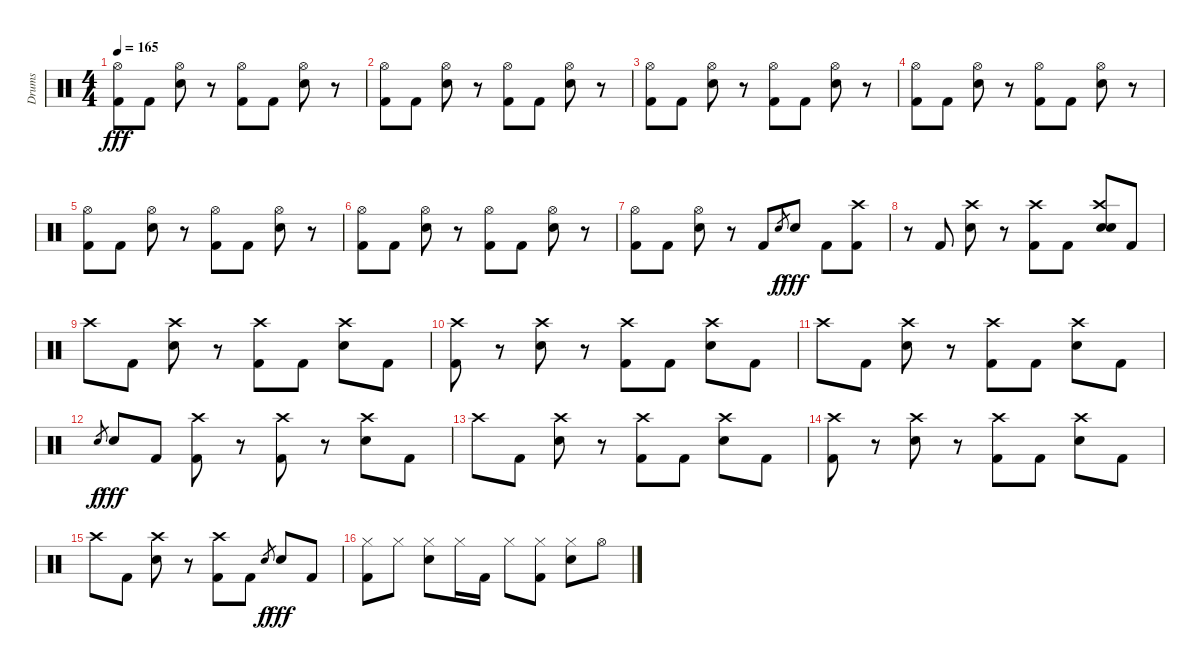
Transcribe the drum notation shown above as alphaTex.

\track ("Drums" "Drums") {instrument percussion}
\staff {score}
\articulation defaults
\ts (4 4)
\tempo 165
\clef neutral
\ks c
("Hi-Hat (open)" "Kick (hit) 2").8{dy fff} "Kick (hit) 2".8 ("Hi-Hat (open)" "Electric Snare (hit)").8 r.8 ("Hi-Hat (open)" "Kick (hit) 2").8 "Kick (hit) 2".8 ("Hi-Hat (open)" "Electric Snare (hit)").8 r.8 |
("Hi-Hat (open)" "Kick (hit) 2").8 "Kick (hit) 2".8 ("Hi-Hat (open)" "Electric Snare (hit)").8 r.8 ("Hi-Hat (open)" "Kick (hit) 2").8 "Kick (hit) 2".8 ("Hi-Hat (open)" "Electric Snare (hit)").8 r.8 |
("Hi-Hat (open)" "Kick (hit) 2").8 "Kick (hit) 2".8 ("Hi-Hat (open)" "Electric Snare (hit)").8 r.8 ("Hi-Hat (open)" "Kick (hit) 2").8 "Kick (hit) 2".8 ("Hi-Hat (open)" "Electric Snare (hit)").8 r.8 |
("Hi-Hat (open)" "Kick (hit) 2").8 "Kick (hit) 2".8 ("Hi-Hat (open)" "Electric Snare (hit)").8 r.8 ("Hi-Hat (open)" "Kick (hit) 2").8 "Kick (hit) 2".8 ("Hi-Hat (open)" "Electric Snare (hit)").8 r.8 |
("Hi-Hat (open)" "Kick (hit) 2").8 "Kick (hit) 2".8 ("Hi-Hat (open)" "Electric Snare (hit)").8 r.8 ("Hi-Hat (open)" "Kick (hit) 2").8 "Kick (hit) 2".8 ("Hi-Hat (open)" "Electric Snare (hit)").8 r.8 |
("Hi-Hat (open)" "Kick (hit) 2").8 "Kick (hit) 2".8 ("Hi-Hat (open)" "Electric Snare (hit)").8 r.8 ("Hi-Hat (open)" "Kick (hit) 2").8 "Kick (hit) 2".8 ("Hi-Hat (open)" "Electric Snare (hit)").8 r.8 |
("Hi-Hat (open)" "Kick (hit) 2").8 "Kick (hit) 2".8 ("Hi-Hat (open)" "Electric Snare (hit)").8 r.8 "Kick (hit) 2".8 "Electric Snare (hit)".8{gr dy f} "Electric Snare (hit)".8{dy fff} "Kick (hit) 2".8 ("Crash high (hit)" "Kick (hit) 2").8 |
r.8 "Kick (hit) 2".8 ("Crash high (hit)" "Electric Snare (hit)").8 r.8 ("Crash high (hit)" "Kick (hit) 2").8 "Kick (hit) 2".8 ("Crash high (hit)" "Electric Snare (hit)" "Snare (hit)").8 "Kick (hit) 2".8 |
"Crash high (hit)".8 "Kick (hit) 2".8 ("Crash high (hit)" "Electric Snare (hit)").8 r.8 ("Crash high (hit)" "Kick (hit) 2").8 "Kick (hit) 2".8 ("Crash high (hit)" "Electric Snare (hit)").8 "Kick (hit) 2".8 |
("Crash high (hit)" "Kick (hit) 2").8 r.8 ("Crash high (hit)" "Electric Snare (hit)").8 r.8 ("Crash high (hit)" "Kick (hit) 2").8 "Kick (hit) 2".8 ("Crash high (hit)" "Electric Snare (hit)").8 "Kick (hit) 2".8 |
"Crash high (hit)".8 "Kick (hit) 2".8 ("Crash high (hit)" "Electric Snare (hit)").8 r.8 ("Crash high (hit)" "Kick (hit) 2").8 "Kick (hit) 2".8 ("Crash high (hit)" "Electric Snare (hit)").8 "Kick (hit) 2".8 |
"Electric Snare (hit)".8{gr dy f} "Electric Snare (hit)".8{dy fff} "Kick (hit) 2".8 ("Crash high (hit)" "Kick (hit) 2").8 r.8 ("Crash high (hit)" "Kick (hit) 2").8 r.8 ("Crash high (hit)" "Electric Snare (hit)").8 "Kick (hit) 2".8 |
"Crash high (hit)".8 "Kick (hit) 2".8 ("Crash high (hit)" "Electric Snare (hit)").8 r.8 ("Crash high (hit)" "Kick (hit) 2").8 "Kick (hit) 2".8 ("Crash high (hit)" "Electric Snare (hit)").8 "Kick (hit) 2".8 |
("Crash high (hit)" "Kick (hit) 2").8 r.8 ("Crash high (hit)" "Electric Snare (hit)").8 r.8 ("Crash high (hit)" "Kick (hit) 2").8 "Kick (hit) 2".8 ("Crash high (hit)" "Electric Snare (hit)").8 "Kick (hit) 2".8 |
"Crash high (hit)".8 "Kick (hit) 2".8 ("Crash high (hit)" "Electric Snare (hit)").8 r.8 ("Crash high (hit)" "Kick (hit) 2").8 "Kick (hit) 2".8 "Electric Snare (hit)".8{gr dy f} "Electric Snare (hit)".8{dy fff} "Kick (hit) 2".8 |
("Hi-Hat (closed)" "Kick (hit) 2").8{volume 9} "Hi-Hat (closed)".8 ("Hi-Hat (closed)" "Electric Snare (hit)").8 "Hi-Hat (closed)".16 "Kick (hit) 2".16 "Hi-Hat (closed)".8 ("Hi-Hat (closed)" "Kick (hit) 2").8 ("Hi-Hat (closed)" "Electric Snare (hit)").8 "Hi-Hat (open)".8
